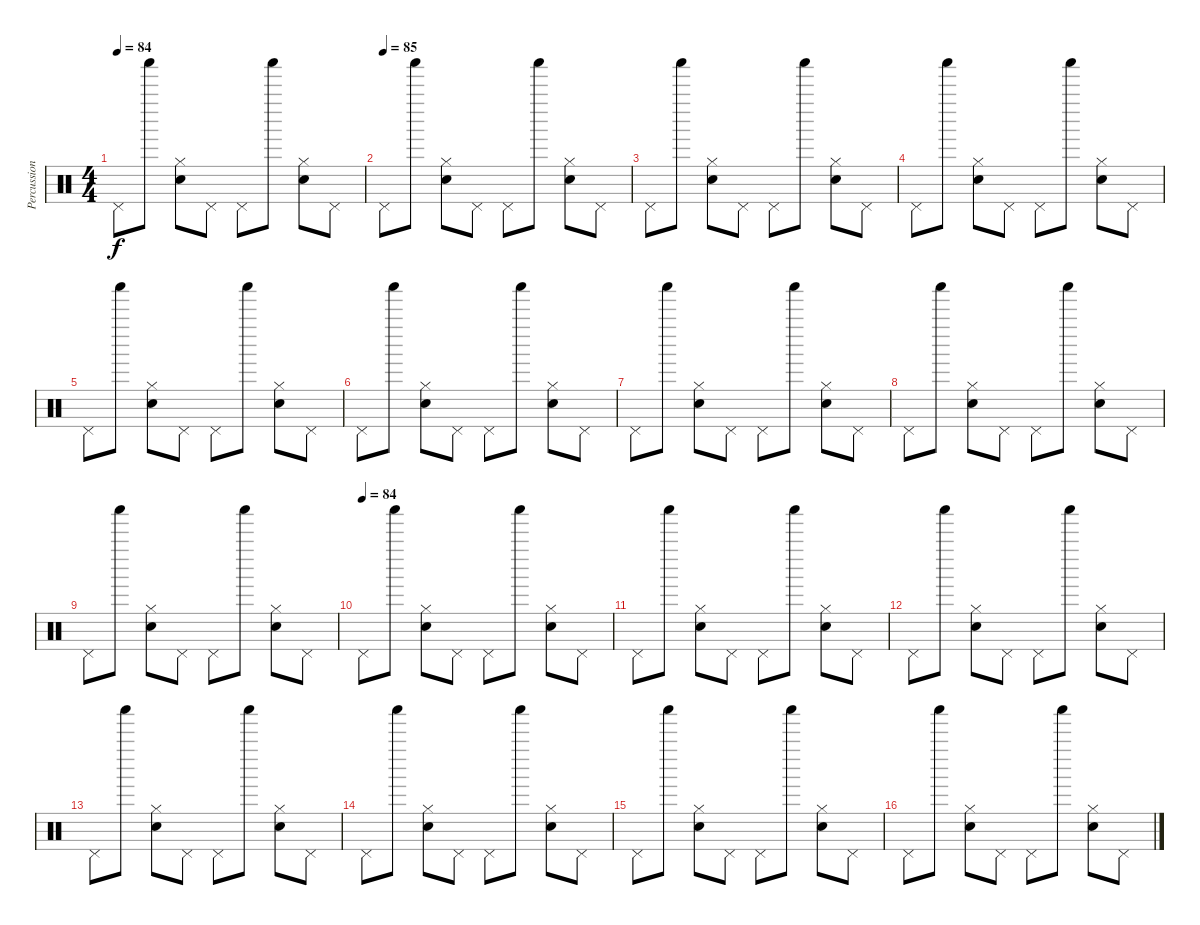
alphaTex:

\track ("Percussion" "Percussion") {instrument percussion}
\staff {score}
\articulation defaults
\ts (4 4)
\tempo 84
\clef neutral
\ks c "Pedal Hi-Hat (hit)".8{dy f} "Shaker (hit)".8
("Hi-Hat (closed)" "Electric Snare (hit)").8 "Pedal Hi-Hat (hit)".8 "Pedal Hi-Hat (hit)".8 "Shaker (hit)".8 ("Hi-Hat (closed)" "Electric Snare (hit)").8 "Pedal Hi-Hat (hit)".8 |
\tempo (85)
"Pedal Hi-Hat (hit)".8 "Shaker (hit)".8 ("Hi-Hat (closed)" "Electric Snare (hit)").8 "Pedal Hi-Hat (hit)".8 "Pedal Hi-Hat (hit)".8 "Shaker (hit)".8 ("Hi-Hat (closed)" "Electric Snare (hit)").8 "Pedal Hi-Hat (hit)".8 |
"Pedal Hi-Hat (hit)".8 "Shaker (hit)".8 ("Hi-Hat (closed)" "Electric Snare (hit)").8 "Pedal Hi-Hat (hit)".8 "Pedal Hi-Hat (hit)".8 "Shaker (hit)".8 ("Hi-Hat (closed)" "Electric Snare (hit)").8 "Pedal Hi-Hat (hit)".8 |
"Pedal Hi-Hat (hit)".8 "Shaker (hit)".8 ("Hi-Hat (closed)" "Electric Snare (hit)").8 "Pedal Hi-Hat (hit)".8 "Pedal Hi-Hat (hit)".8 "Shaker (hit)".8 ("Hi-Hat (closed)" "Electric Snare (hit)").8 "Pedal Hi-Hat (hit)".8 |
"Pedal Hi-Hat (hit)".8 "Shaker (hit)".8 ("Hi-Hat (closed)" "Electric Snare (hit)").8 "Pedal Hi-Hat (hit)".8 "Pedal Hi-Hat (hit)".8 "Shaker (hit)".8 ("Hi-Hat (closed)" "Electric Snare (hit)").8 "Pedal Hi-Hat (hit)".8 |
"Pedal Hi-Hat (hit)".8 "Shaker (hit)".8 ("Hi-Hat (closed)" "Electric Snare (hit)").8 "Pedal Hi-Hat (hit)".8 "Pedal Hi-Hat (hit)".8 "Shaker (hit)".8 ("Hi-Hat (closed)" "Electric Snare (hit)").8 "Pedal Hi-Hat (hit)".8 |
"Pedal Hi-Hat (hit)".8 "Shaker (hit)".8 ("Hi-Hat (closed)" "Electric Snare (hit)").8 "Pedal Hi-Hat (hit)".8 "Pedal Hi-Hat (hit)".8 "Shaker (hit)".8 ("Hi-Hat (closed)" "Electric Snare (hit)").8 "Pedal Hi-Hat (hit)".8 |
"Pedal Hi-Hat (hit)".8 "Shaker (hit)".8 ("Hi-Hat (closed)" "Electric Snare (hit)").8 "Pedal Hi-Hat (hit)".8 "Pedal Hi-Hat (hit)".8 "Shaker (hit)".8 ("Hi-Hat (closed)" "Electric Snare (hit)").8 "Pedal Hi-Hat (hit)".8 |
"Pedal Hi-Hat (hit)".8 "Shaker (hit)".8 ("Hi-Hat (closed)" "Electric Snare (hit)").8 "Pedal Hi-Hat (hit)".8 "Pedal Hi-Hat (hit)".8 "Shaker (hit)".8 ("Hi-Hat (closed)" "Electric Snare (hit)").8 "Pedal Hi-Hat (hit)".8 |
\tempo (84)
"Pedal Hi-Hat (hit)".8 "Shaker (hit)".8 ("Hi-Hat (closed)" "Electric Snare (hit)").8 "Pedal Hi-Hat (hit)".8 "Pedal Hi-Hat (hit)".8 "Shaker (hit)".8 ("Hi-Hat (closed)" "Electric Snare (hit)").8 "Pedal Hi-Hat (hit)".8 |
"Pedal Hi-Hat (hit)".8 "Shaker (hit)".8 ("Hi-Hat (closed)" "Electric Snare (hit)").8 "Pedal Hi-Hat (hit)".8 "Pedal Hi-Hat (hit)".8 "Shaker (hit)".8 ("Hi-Hat (closed)" "Electric Snare (hit)").8 "Pedal Hi-Hat (hit)".8 |
"Pedal Hi-Hat (hit)".8 "Shaker (hit)".8 ("Hi-Hat (closed)" "Electric Snare (hit)").8 "Pedal Hi-Hat (hit)".8 "Pedal Hi-Hat (hit)".8 "Shaker (hit)".8 ("Hi-Hat (closed)" "Electric Snare (hit)").8 "Pedal Hi-Hat (hit)".8 |
"Pedal Hi-Hat (hit)".8 "Shaker (hit)".8 ("Hi-Hat (closed)" "Electric Snare (hit)").8 "Pedal Hi-Hat (hit)".8 "Pedal Hi-Hat (hit)".8 "Shaker (hit)".8 ("Hi-Hat (closed)" "Electric Snare (hit)").8 "Pedal Hi-Hat (hit)".8 |
"Pedal Hi-Hat (hit)".8 "Shaker (hit)".8 ("Hi-Hat (closed)" "Electric Snare (hit)").8 "Pedal Hi-Hat (hit)".8 "Pedal Hi-Hat (hit)".8 "Shaker (hit)".8 ("Hi-Hat (closed)" "Electric Snare (hit)").8 "Pedal Hi-Hat (hit)".8 |
"Pedal Hi-Hat (hit)".8 "Shaker (hit)".8 ("Hi-Hat (closed)" "Electric Snare (hit)").8 "Pedal Hi-Hat (hit)".8 "Pedal Hi-Hat (hit)".8 "Shaker (hit)".8 ("Hi-Hat (closed)" "Electric Snare (hit)").8 "Pedal Hi-Hat (hit)".8 |
"Pedal Hi-Hat (hit)".8 "Shaker (hit)".8 ("Hi-Hat (closed)" "Electric Snare (hit)").8 "Pedal Hi-Hat (hit)".8 "Pedal Hi-Hat (hit)".8 "Shaker (hit)".8 ("Hi-Hat (closed)" "Electric Snare (hit)").8 "Pedal Hi-Hat (hit)".8
